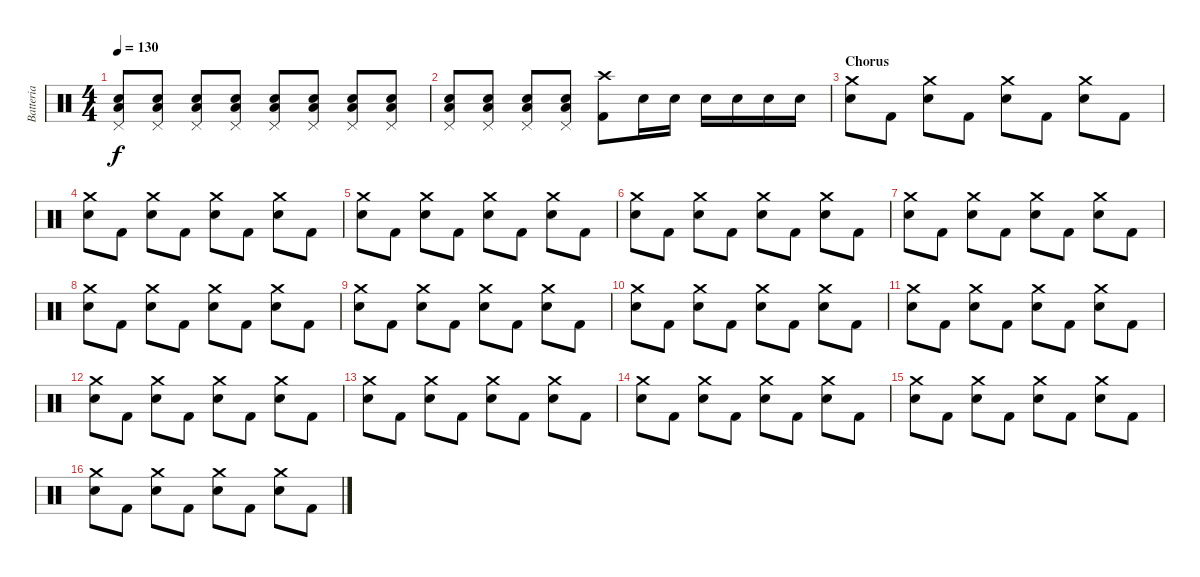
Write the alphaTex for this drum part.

\track ("Batteria" "Batteria") {instrument percussion}
\staff {score}
\articulation defaults
\ts (4 4)
\tempo 130
\clef neutral
\ks c
("Pedal Hi-Hat (hit)" "Electric Snare (hit)" "Low Tom (hit)").8{dy f} ("Pedal Hi-Hat (hit)" "Electric Snare (hit)" "Low Tom (hit)").8 ("Pedal Hi-Hat (hit)" "Electric Snare (hit)" "Low Tom (hit)").8 ("Pedal Hi-Hat (hit)" "Electric Snare (hit)" "Low Tom (hit)").8 ("Pedal Hi-Hat (hit)" "Electric Snare (hit)" "Low Tom (hit)").8 ("Pedal Hi-Hat (hit)" "Electric Snare (hit)" "Low Tom (hit)").8 ("Pedal Hi-Hat (hit)" "Electric Snare (hit)" "Low Tom (hit)").8 ("Pedal Hi-Hat (hit)" "Electric Snare (hit)" "Low Tom (hit)").8 |
("Pedal Hi-Hat (hit)" "Electric Snare (hit)" "Low Tom (hit)").8 ("Pedal Hi-Hat (hit)" "Electric Snare (hit)" "Low Tom (hit)").8 ("Pedal Hi-Hat (hit)" "Electric Snare (hit)" "Low Tom (hit)").8 ("Pedal Hi-Hat (hit)" "Electric Snare (hit)" "Low Tom (hit)").8 ("Crash high (hit)" "Kick (hit) 2").8 "Electric Snare (hit)".16 "Electric Snare (hit)".16 "Electric Snare (hit)".16 "Electric Snare (hit)".16 "Electric Snare (hit)".16 "Electric Snare (hit)".16 |
\section ("" "Chorus")
("Crash medium (hit)" "Electric Snare (hit)").8 "Kick (hit) 2".8 ("Crash medium (hit)" "Electric Snare (hit)").8 "Kick (hit) 2".8 ("Crash medium (hit)" "Electric Snare (hit)").8 "Kick (hit) 2".8 ("Crash medium (hit)" "Electric Snare (hit)").8 "Kick (hit) 2".8 |
("Crash medium (hit)" "Electric Snare (hit)").8 "Kick (hit) 2".8 ("Crash medium (hit)" "Electric Snare (hit)").8 "Kick (hit) 2".8 ("Crash medium (hit)" "Electric Snare (hit)").8 "Kick (hit) 2".8 ("Crash medium (hit)" "Electric Snare (hit)").8 "Kick (hit) 2".8 |
("Crash medium (hit)" "Electric Snare (hit)").8 "Kick (hit) 2".8 ("Crash medium (hit)" "Electric Snare (hit)").8 "Kick (hit) 2".8 ("Crash medium (hit)" "Electric Snare (hit)").8 "Kick (hit) 2".8 ("Crash medium (hit)" "Electric Snare (hit)").8 "Kick (hit) 2".8 |
("Crash medium (hit)" "Electric Snare (hit)").8 "Kick (hit) 2".8 ("Crash medium (hit)" "Electric Snare (hit)").8 "Kick (hit) 2".8 ("Crash medium (hit)" "Electric Snare (hit)").8 "Kick (hit) 2".8 ("Crash medium (hit)" "Electric Snare (hit)").8 "Kick (hit) 2".8 |
("Crash medium (hit)" "Electric Snare (hit)").8 "Kick (hit) 2".8 ("Crash medium (hit)" "Electric Snare (hit)").8 "Kick (hit) 2".8 ("Crash medium (hit)" "Electric Snare (hit)").8 "Kick (hit) 2".8 ("Crash medium (hit)" "Electric Snare (hit)").8 "Kick (hit) 2".8 |
("Crash medium (hit)" "Electric Snare (hit)").8 "Kick (hit) 2".8 ("Crash medium (hit)" "Electric Snare (hit)").8 "Kick (hit) 2".8 ("Crash medium (hit)" "Electric Snare (hit)").8 "Kick (hit) 2".8 ("Crash medium (hit)" "Electric Snare (hit)").8 "Kick (hit) 2".8 |
("Crash medium (hit)" "Electric Snare (hit)").8 "Kick (hit) 2".8 ("Crash medium (hit)" "Electric Snare (hit)").8 "Kick (hit) 2".8 ("Crash medium (hit)" "Electric Snare (hit)").8 "Kick (hit) 2".8 ("Crash medium (hit)" "Electric Snare (hit)").8 "Kick (hit) 2".8 |
("Crash medium (hit)" "Electric Snare (hit)").8 "Kick (hit) 2".8 ("Crash medium (hit)" "Electric Snare (hit)").8 "Kick (hit) 2".8 ("Crash medium (hit)" "Electric Snare (hit)").8 "Kick (hit) 2".8 ("Crash medium (hit)" "Electric Snare (hit)").8 "Kick (hit) 2".8 |
("Crash medium (hit)" "Electric Snare (hit)").8 "Kick (hit) 2".8 ("Crash medium (hit)" "Electric Snare (hit)").8 "Kick (hit) 2".8 ("Crash medium (hit)" "Electric Snare (hit)").8 "Kick (hit) 2".8 ("Crash medium (hit)" "Electric Snare (hit)").8 "Kick (hit) 2".8 |
("Crash medium (hit)" "Electric Snare (hit)").8 "Kick (hit) 2".8 ("Crash medium (hit)" "Electric Snare (hit)").8 "Kick (hit) 2".8 ("Crash medium (hit)" "Electric Snare (hit)").8 "Kick (hit) 2".8 ("Crash medium (hit)" "Electric Snare (hit)").8 "Kick (hit) 2".8 |
("Crash medium (hit)" "Electric Snare (hit)").8 "Kick (hit) 2".8 ("Crash medium (hit)" "Electric Snare (hit)").8 "Kick (hit) 2".8 ("Crash medium (hit)" "Electric Snare (hit)").8 "Kick (hit) 2".8 ("Crash medium (hit)" "Electric Snare (hit)").8 "Kick (hit) 2".8 |
("Crash medium (hit)" "Electric Snare (hit)").8 "Kick (hit) 2".8 ("Crash medium (hit)" "Electric Snare (hit)").8 "Kick (hit) 2".8 ("Crash medium (hit)" "Electric Snare (hit)").8 "Kick (hit) 2".8 ("Crash medium (hit)" "Electric Snare (hit)").8 "Kick (hit) 2".8 |
("Crash medium (hit)" "Electric Snare (hit)").8 "Kick (hit) 2".8 ("Crash medium (hit)" "Electric Snare (hit)").8 "Kick (hit) 2".8 ("Crash medium (hit)" "Electric Snare (hit)").8 "Kick (hit) 2".8 ("Crash medium (hit)" "Electric Snare (hit)").8 "Kick (hit) 2".8 |
("Crash medium (hit)" "Electric Snare (hit)").8 "Kick (hit) 2".8 ("Crash medium (hit)" "Electric Snare (hit)").8 "Kick (hit) 2".8 ("Crash medium (hit)" "Electric Snare (hit)").8 "Kick (hit) 2".8 ("Crash medium (hit)" "Electric Snare (hit)").8 "Kick (hit) 2".8
